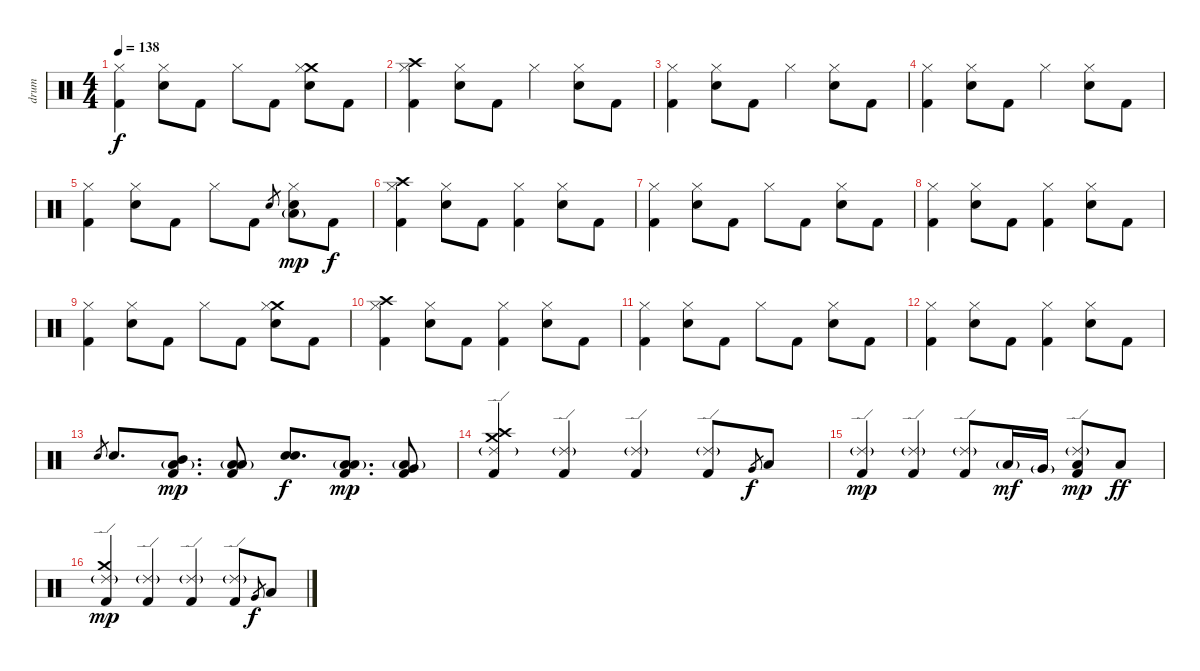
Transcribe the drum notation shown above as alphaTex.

\track ("drum" "drum") {instrument percussion}
\staff {score}
\articulation defaults
\ts (4 4)
\tempo 138
\clef neutral
\ks c
("Hi-Hat (closed)" "Kick (hit) 2").4{dy f} ("Hi-Hat (closed)" "Snare (hit) 2").8 "Kick (hit) 2".8 "Hi-Hat (closed)".8 "Kick (hit) 2".8 ("Crash medium (hit)" "Hi-Hat (closed)" "Snare (hit) 2").8 "Kick (hit) 2".8 |
("Crash high (hit)" "Hi-Hat (closed)" "Kick (hit) 2").4 ("Hi-Hat (closed)" "Snare (hit) 2").8 "Kick (hit) 2".8 "Hi-Hat (closed)".4 ("Hi-Hat (closed)" "Snare (hit) 2").8 "Kick (hit) 2".8 |
("Hi-Hat (closed)" "Kick (hit) 2").4 ("Hi-Hat (closed)" "Snare (hit) 2").8 "Kick (hit) 2".8 "Hi-Hat (closed)".4 ("Hi-Hat (closed)" "Snare (hit) 2").8 "Kick (hit) 2".8 |
("Hi-Hat (closed)" "Kick (hit) 2").4 ("Hi-Hat (closed)" "Snare (hit) 2").8 "Kick (hit) 2".8 "Hi-Hat (closed)".4 ("Hi-Hat (closed)" "Snare (hit) 2").8 "Kick (hit) 2".8 |
("Hi-Hat (closed)" "Kick (hit) 2").4 ("Hi-Hat (closed)" "Snare (hit) 2").8 "Kick (hit) 2".8 "Hi-Hat (closed)".8 "Kick (hit) 2".8 "Snare (hit) 2".8{gr} ("Hi-Hat (closed)" "Low Floor Tom (hit)"{g} "Snare (hit) 2").8{dy mp} "Kick (hit) 2".8{dy f} |
("Crash high (hit)" "Hi-Hat (closed)" "Kick (hit) 2").4 ("Hi-Hat (closed)" "Snare (hit) 2").8 "Kick (hit) 2".8 ("Hi-Hat (closed)" "Kick (hit) 2").4 ("Hi-Hat (closed)" "Snare (hit) 2").8 "Kick (hit) 2".8 |
("Hi-Hat (closed)" "Kick (hit) 2").4 ("Hi-Hat (closed)" "Snare (hit) 2").8 "Kick (hit) 2".8 "Hi-Hat (closed)".8 "Kick (hit) 2".8 ("Hi-Hat (closed)" "Snare (hit) 2").8 "Kick (hit) 2".8 |
("Hi-Hat (closed)" "Kick (hit) 2").4 ("Hi-Hat (closed)" "Snare (hit) 2").8 "Kick (hit) 2".8 ("Hi-Hat (closed)" "Kick (hit) 2").4 ("Hi-Hat (closed)" "Snare (hit) 2").8 "Kick (hit) 2".8 |
("Hi-Hat (closed)" "Kick (hit) 2").4 ("Hi-Hat (closed)" "Snare (hit) 2").8 "Kick (hit) 2".8 "Hi-Hat (closed)".8 "Kick (hit) 2".8 ("Crash medium (hit)" "Hi-Hat (closed)" "Snare (hit) 2").8 "Kick (hit) 2".8 |
("Crash high (hit)" "Hi-Hat (closed)" "Kick (hit) 2").4 ("Hi-Hat (closed)" "Snare (hit) 2").8 "Kick (hit) 2".8 ("Hi-Hat (closed)" "Kick (hit) 2").4 ("Hi-Hat (closed)" "Snare (hit) 2").8 "Kick (hit) 2".8 |
("Hi-Hat (closed)" "Kick (hit) 2").4 ("Hi-Hat (closed)" "Snare (hit) 2").8 "Kick (hit) 2".8 "Hi-Hat (closed)".8 "Kick (hit) 2".8 ("Hi-Hat (closed)" "Snare (hit) 2").8 "Kick (hit) 2".8 |
("Hi-Hat (closed)" "Kick (hit) 2").4 ("Hi-Hat (closed)" "Snare (hit) 2").8 "Kick (hit) 2".8 ("Hi-Hat (closed)" "Kick (hit) 2").4 ("Hi-Hat (closed)" "Snare (hit) 2").8 "Kick (hit) 2".8 |
"Snare (hit) 2".8{gr} "Snare (hit) 2".8{d} ("Low Floor Tom (hit)"{g} "Mid Tom (hit)" "Kick (hit) 2").8{d dy mp} ("Low Floor Tom (hit)"{g} "Low Tom (hit)" "Kick (hit) 2").8 ("Snare (hit) 2" "Snare (hit) 2").8{d bd 240 dy f} ("Low Floor Tom (hit)"{g} "Low Tom (hit)" "Kick (hit) 2").8{d dy mp} ("Low Floor Tom (hit)"{g} "Very Low Tom (hit)" "Kick (hit) 2").8 |
("Crash high (hit)" "Crash medium (hit)" "Kick (hit) 2" "Ride (edge) 2"{g}).4 ("Kick (hit) 2" "Ride (edge) 2"{g}).4 ("Kick (hit) 2" "Ride (edge) 2"{g}).4 ("Kick (hit) 2" "Ride (edge) 2"{g}).8 "Very Low Tom (hit)".8{gr dy f} "Low Floor Tom (hit)".8 |
("Kick (hit) 2" "Ride (edge) 2"{g}).4{dy mp} ("Kick (hit) 2" "Ride (edge) 2"{g}).4 ("Kick (hit) 2" "Ride (edge) 2"{g}).8 "Low Tom (hit)"{g}.16{dy mf} "Very Low Tom (hit)"{g}.16 ("Low Floor Tom (hit)" "Kick (hit) 2" "Ride (edge) 2"{g}).8{dy mp} "Low Floor Tom (hit)".8{dy ff} |
("Crash medium (hit)" "Kick (hit) 2" "Ride (edge) 2"{g}).4{dy mp} ("Kick (hit) 2" "Ride (edge) 2"{g}).4 ("Kick (hit) 2" "Ride (edge) 2"{g}).4 ("Kick (hit) 2" "Ride (edge) 2"{g}).8 "Very Low Tom (hit)".8{gr dy f} "Low Floor Tom (hit)".8
